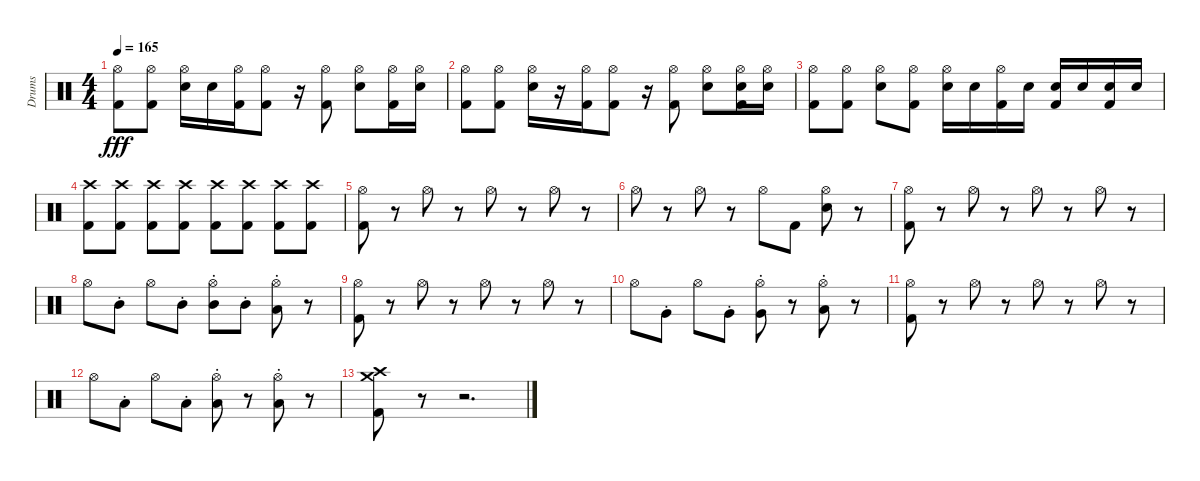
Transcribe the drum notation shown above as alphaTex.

\track ("Drums" "Drums") {instrument percussion}
\staff {score}
\articulation defaults
\ts (4 4)
\tempo 165
\clef neutral
\ks c
("Hi-Hat (open)" "Kick (hit) 2").8{dy fff} ("Hi-Hat (open)" "Kick (hit) 2").8 ("Hi-Hat (open)" "Snare (hit) 2").16 "Snare (hit) 2".16 ("Hi-Hat (open)" "Kick (hit) 2").16 ("Hi-Hat (open)" "Kick (hit) 2").8 r.16 ("Hi-Hat (open)" "Kick (hit) 2").8 ("Hi-Hat (open)" "Snare (hit) 2").8 ("Hi-Hat (open)" "Kick (hit) 2").16 ("Hi-Hat (open)" "Snare (hit) 2").16 |
("Hi-Hat (open)" "Kick (hit) 2").8 ("Hi-Hat (open)" "Kick (hit) 2").8 ("Hi-Hat (open)" "Snare (hit) 2").16 r.16 ("Hi-Hat (open)" "Kick (hit) 2").16 ("Hi-Hat (open)" "Kick (hit) 2").8 r.16 ("Hi-Hat (open)" "Kick (hit) 2").8 ("Hi-Hat (open)" "Snare (hit) 2").8 ("Hi-Hat (open)" "Snare (hit) 2" "Kick (hit) 2").16 ("Hi-Hat (open)" "Snare (hit) 2").16 |
("Hi-Hat (open)" "Kick (hit) 2").8 ("Hi-Hat (open)" "Kick (hit) 2").8 ("Hi-Hat (open)" "Snare (hit) 2").8 ("Hi-Hat (open)" "Kick (hit) 2").8 ("Hi-Hat (open)" "Snare (hit) 2").16 "Snare (hit) 2".16 ("Hi-Hat (open)" "Kick (hit) 2").16 "Snare (hit) 2".16 ("Snare (hit) 2" "Kick (hit) 2").16 "Snare (hit) 2".16 ("Snare (hit) 2" "Kick (hit) 2").16 "Snare (hit) 2".16 |
("Crash high (hit)" "Kick (hit) 2").8 ("Crash high (hit)" "Kick (hit) 2").8 ("Crash high (hit)" "Kick (hit) 2").8 ("Crash high (hit)" "Kick (hit) 2").8 ("Crash high (hit)" "Kick (hit) 2").8 ("Crash high (hit)" "Kick (hit) 2").8 ("Crash high (hit)" "Kick (hit) 2").8 ("Crash high (hit)" "Kick (hit) 2").8 |
("Hi-Hat (open)" "Kick (hit) 2").8 r.8 "Hi-Hat (open)".8 r.8 "Hi-Hat (open)".8 r.8 "Hi-Hat (open)".8 r.8 |
"Hi-Hat (open)".8 r.8 "Hi-Hat (open)".8 r.8 "Hi-Hat (open)".8 "Kick (hit) 2".8 ("Hi-Hat (open)" "Snare (hit) 2").8 r.8 |
("Hi-Hat (open)" "Kick (hit) 2").8 r.8 "Hi-Hat (open)".8 r.8 "Hi-Hat (open)".8 r.8 "Hi-Hat (open)".8 r.8 |
"Hi-Hat (open)".8 "Mid Tom (hit)"{st}.8 "Hi-Hat (open)".8 "Mid Tom (hit)"{st}.8 ("Hi-Hat (open)" "Mid Tom (hit)"{st}).8 "Mid Tom (hit)"{st}.8 ("Hi-Hat (open)" "Low Tom (hit)"{st}).8 r.8 |
("Hi-Hat (open)" "Kick (hit) 2").8 r.8 "Hi-Hat (open)".8 r.8 "Hi-Hat (open)".8 r.8 "Hi-Hat (open)".8 r.8 |
"Hi-Hat (open)".8 "Very Low Tom (hit)"{st}.8 "Hi-Hat (open)".8 "Very Low Tom (hit)"{st}.8 ("Hi-Hat (open)" "Very Low Tom (hit)"{st}).8 r.8 ("Hi-Hat (open)" "Low Floor Tom (hit)"{st}).8 r.8 |
("Hi-Hat (open)" "Kick (hit) 2").8 r.8 "Hi-Hat (open)".8 r.8 "Hi-Hat (open)".8 r.8 "Hi-Hat (open)".8 r.8 |
"Hi-Hat (open)".8 "Low Floor Tom (hit)"{st}.8 "Hi-Hat (open)".8 "Low Floor Tom (hit)"{st}.8 ("Hi-Hat (open)" "Low Floor Tom (hit)"{st}).8 r.8 ("Hi-Hat (open)" "Low Floor Tom (hit)"{st}).8 r.8 |
("Crash medium (hit)" "Crash high (hit)" "Kick (hit) 2").8 r.8 r.2{d}
